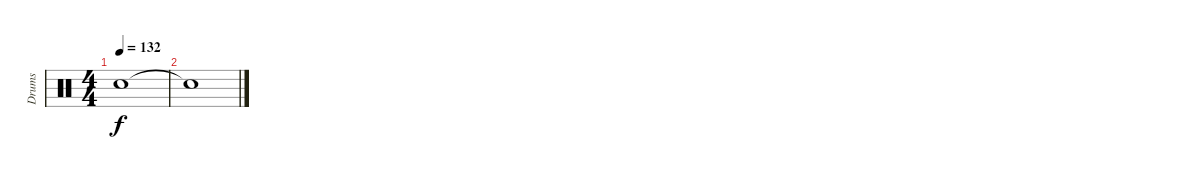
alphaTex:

\track ("Drums" "Drums") {instrument percussion}
\staff {score}
\articulation defaults
\ts (4 4)
\tempo 132
\clef neutral
\ks c "Snare (hit)"{t}.1{dy f}
|
"Snare (hit)"{t}.1
